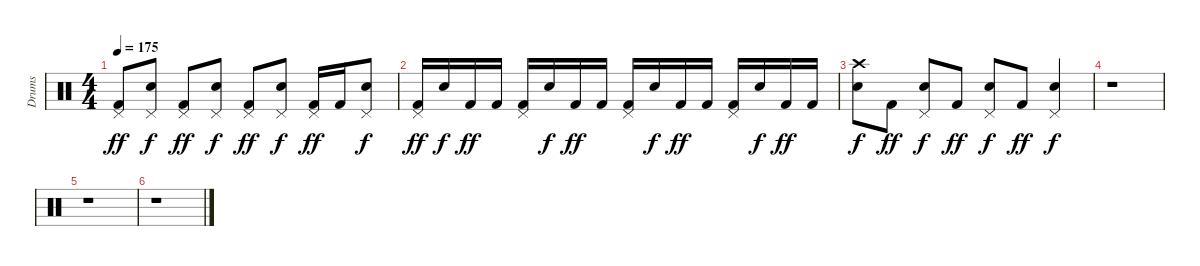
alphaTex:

\track ("Drums" "Drums") {instrument percussion}
\staff {score}
\articulation defaults
\ts (4 4)
\tempo 175
\clef neutral
\ks c
("Pedal Hi-Hat (hit)" "Kick (hit) 2").8{dy ff} ("Pedal Hi-Hat (hit)" "Electric Snare (hit)").8{dy f} ("Pedal Hi-Hat (hit)" "Kick (hit) 2").8{dy ff} ("Pedal Hi-Hat (hit)" "Electric Snare (hit)").8{dy f} ("Pedal Hi-Hat (hit)" "Kick (hit) 2").8{dy ff} ("Pedal Hi-Hat (hit)" "Electric Snare (hit)").8{dy f} ("Pedal Hi-Hat (hit)" "Kick (hit) 2").16{dy ff} "Kick (hit) 2".16 ("Pedal Hi-Hat (hit)" "Electric Snare (hit)").8{dy f} |
("Pedal Hi-Hat (hit)" "Kick (hit) 2").16{dy ff} "Electric Snare (hit)".16{dy f} "Kick (hit) 2".16{dy ff} "Kick (hit) 2".16 ("Pedal Hi-Hat (hit)" "Kick (hit) 2").16 "Electric Snare (hit)".16{dy f} "Kick (hit) 2".16{dy ff} "Kick (hit) 2".16 ("Pedal Hi-Hat (hit)" "Kick (hit) 2").16 "Electric Snare (hit)".16{dy f} "Kick (hit) 2".16{dy ff} "Kick (hit) 2".16 ("Pedal Hi-Hat (hit)" "Kick (hit) 2").16 "Electric Snare (hit)".16{dy f} "Kick (hit) 2".16{dy ff} "Kick (hit) 2".16 |
("Crash high (hit)" "Electric Snare (hit)").8{dy f volume 0} "Kick (hit) 2".8{dy ff} ("Pedal Hi-Hat (hit)" "Electric Snare (hit)").8{dy f} "Kick (hit) 2".8{dy ff} ("Pedal Hi-Hat (hit)" "Electric Snare (hit)").8{dy f} "Kick (hit) 2".8{dy ff} ("Pedal Hi-Hat (hit)" "Electric Snare (hit)").4{dy f} |
r.1 |
r.1 |
r.1
